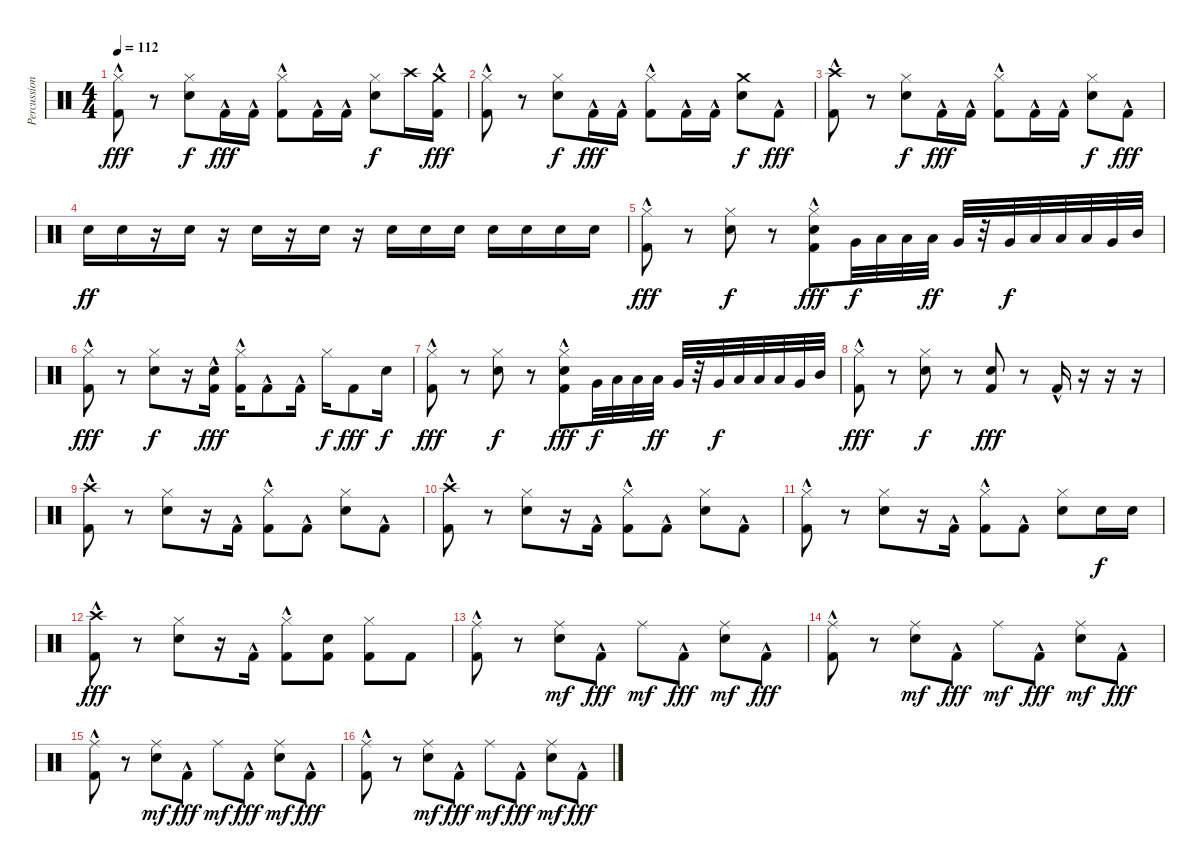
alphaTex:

\track ("Percussions" "Percussion") {instrument percussion}
\staff {score}
\articulation defaults
\ts (4 4)
\tempo 112
\clef neutral
\ks c
("Hi-Hat (closed)" "Kick (hit) 2"{hac}).8{dy fff} r.8 ("Hi-Hat (closed)" "Snare (hit) 2").8{dy f} "Kick (hit) 2"{hac}.16{dy fff} "Kick (hit) 2"{hac}.16 ("Hi-Hat (closed)" "Kick (hit) 2"{hac}).8 "Kick (hit) 2"{hac}.16 "Kick (hit) 2"{hac}.16 ("Hi-Hat (closed)" "Snare (hit) 2").8{dy f} "Crash high (hit)".16 ("Crash medium (hit)" "Kick (hit) 2"{hac}).16{dy fff} |
("Hi-Hat (closed)" "Kick (hit) 2"{hac}).8 r.8 ("Hi-Hat (closed)" "Snare (hit) 2").8{dy f} "Kick (hit) 2"{hac}.16{dy fff} "Kick (hit) 2"{hac}.16 ("Hi-Hat (closed)" "Kick (hit) 2"{hac}).8 "Kick (hit) 2"{hac}.16 "Kick (hit) 2"{hac}.16 ("Crash medium (hit)" "Snare (hit) 2").8{dy f} "Kick (hit) 2"{hac}.8{dy fff} |
("Crash high (hit)" "Kick (hit) 2"{hac}).8 r.8 ("Hi-Hat (closed)" "Snare (hit) 2").8{dy f} "Kick (hit) 2"{hac}.16{dy fff} "Kick (hit) 2"{hac}.16 ("Hi-Hat (closed)" "Kick (hit) 2"{hac}).8 "Kick (hit) 2"{hac}.16 "Kick (hit) 2"{hac}.16 ("Hi-Hat (closed)" "Snare (hit) 2").8{dy f} "Kick (hit) 2"{hac}.8{dy fff} |
"Snare (hit) 2".16{dy ff} "Snare (hit) 2".16 r.16 "Snare (hit) 2".16 r.16 "Snare (hit) 2".16 r.16 "Snare (hit) 2".16 r.16 "Snare (hit) 2".16 "Snare (hit) 2".16 "Snare (hit) 2".16 "Snare (hit) 2".16 "Snare (hit) 2".16 "Snare (hit) 2".16 "Snare (hit) 2".16 |
("Hi-Hat (closed)" "Kick (hit) 2"{hac}).8{dy fff} r.8 ("Hi-Hat (closed)" "Snare (hit) 2").8{dy f} r.8 ("Hi-Hat (closed)" "Snare (hit) 2" "Kick (hit) 2"{hac}).8{dy fff} "Very Low Tom (hit)".32{dy f} "Low Floor Tom (hit)".32 "Low Floor Tom (hit)".32 "Low Tom (hit)".32{dy ff} "Very Low Tom (hit)".32 r.32 "Very Low Tom (hit)".32{dy f} "Low Floor Tom (hit)".32 "Low Floor Tom (hit)".32 "Low Tom (hit)".32 "Very Low Tom (hit)".32 "Mid Tom (hit)".32 |
("Hi-Hat (closed)" "Kick (hit) 2"{hac}).8{dy fff} r.8 ("Hi-Hat (closed)" "Snare (hit) 2").8{dy f} r.16 ("Snare (hit) 2" "Kick (hit) 2"{hac}).16{dy fff} ("Hi-Hat (closed)" "Kick (hit) 2"{hac}).16 "Kick (hit) 2"{hac}.8 "Kick (hit) 2"{hac}.16 "Hi-Hat (closed)".16{dy f} "Kick (hit) 2".8{dy fff} "Snare (hit) 2".16{dy f} |
("Hi-Hat (closed)" "Kick (hit) 2"{hac}).8{dy fff} r.8 ("Hi-Hat (closed)" "Snare (hit) 2").8{dy f} r.8 ("Hi-Hat (closed)" "Snare (hit) 2" "Kick (hit) 2"{hac}).8{dy fff} "Very Low Tom (hit)".32{dy f} "Low Floor Tom (hit)".32 "Low Floor Tom (hit)".32 "Low Tom (hit)".32{dy ff} "Very Low Tom (hit)".32 r.32 "Very Low Tom (hit)".32{dy f} "Low Floor Tom (hit)".32 "Low Floor Tom (hit)".32 "Low Tom (hit)".32 "Very Low Tom (hit)".32 "Mid Tom (hit)".32 |
("Hi-Hat (closed)" "Kick (hit) 2"{hac}).8{dy fff} r.8 ("Hi-Hat (closed)" "Snare (hit) 2").8{dy f} r.8 ("Snare (hit) 2" "Kick (hit) 2").8{dy fff} r.8 "Kick (hit) 2"{hac}.16 r.16 r.16 r.16 |
("Crash high (hit)" "Kick (hit) 2"{hac}).8 r.8 ("Hi-Hat (closed)" "Snare (hit) 2").8 r.16 "Kick (hit) 2"{hac}.16 ("Hi-Hat (closed)" "Kick (hit) 2"{hac}).8 "Kick (hit) 2"{hac}.8 ("Hi-Hat (closed)" "Snare (hit) 2").8 "Kick (hit) 2"{hac}.8 |
("Crash high (hit)" "Kick (hit) 2"{hac}).8 r.8 ("Hi-Hat (closed)" "Snare (hit) 2").8 r.16 "Kick (hit) 2"{hac}.16 ("Hi-Hat (closed)" "Kick (hit) 2"{hac}).8 "Kick (hit) 2"{hac}.8 ("Hi-Hat (closed)" "Snare (hit) 2").8 "Kick (hit) 2"{hac}.8 |
("Hi-Hat (closed)" "Kick (hit) 2"{hac}).8 r.8 ("Hi-Hat (closed)" "Snare (hit) 2").8 r.16 "Kick (hit) 2"{hac}.16 ("Hi-Hat (closed)" "Kick (hit) 2"{hac}).8 "Kick (hit) 2"{hac}.8 ("Hi-Hat (closed)" "Snare (hit) 2").8 "Snare (hit) 2".16{dy f} "Snare (hit) 2".16 |
("Crash high (hit)" "Kick (hit) 2"{hac}).8{dy fff} r.8 ("Hi-Hat (closed)" "Snare (hit) 2").8 r.16 "Kick (hit) 2"{hac}.16 ("Hi-Hat (closed)" "Kick (hit) 2"{hac}).8 ("Snare (hit) 2" "Kick (hit) 2").8 ("Hi-Hat (closed)" "Kick (hit) 2").8 "Kick (hit) 2".8 |
("Ride (middle)" "Kick (hit) 2"{hac}).8 r.8 ("Ride (middle)" "Snare (hit) 2").8{dy mf} "Kick (hit) 2"{hac}.8{dy fff} "Ride (middle)".8{dy mf} "Kick (hit) 2"{hac}.8{dy fff} ("Ride (middle)" "Snare (hit) 2").8{dy mf} "Kick (hit) 2"{hac}.8{dy fff} |
("Ride (middle)" "Kick (hit) 2"{hac}).8 r.8 ("Ride (middle)" "Snare (hit) 2").8{dy mf} "Kick (hit) 2"{hac}.8{dy fff} "Ride (middle)".8{dy mf} "Kick (hit) 2"{hac}.8{dy fff} ("Ride (middle)" "Snare (hit) 2").8{dy mf} "Kick (hit) 2"{hac}.8{dy fff} |
("Ride (middle)" "Kick (hit) 2"{hac}).8 r.8 ("Ride (middle)" "Snare (hit) 2").8{dy mf} "Kick (hit) 2"{hac}.8{dy fff} "Ride (middle)".8{dy mf} "Kick (hit) 2"{hac}.8{dy fff} ("Ride (middle)" "Snare (hit) 2").8{dy mf} "Kick (hit) 2"{hac}.8{dy fff} |
("Ride (middle)" "Kick (hit) 2"{hac}).8 r.8 ("Ride (middle)" "Snare (hit) 2").8{dy mf} "Kick (hit) 2"{hac}.8{dy fff} "Ride (middle)".8{dy mf} "Kick (hit) 2"{hac}.8{dy fff} ("Ride (middle)" "Snare (hit) 2").8{dy mf} "Kick (hit) 2"{hac}.8{dy fff}
